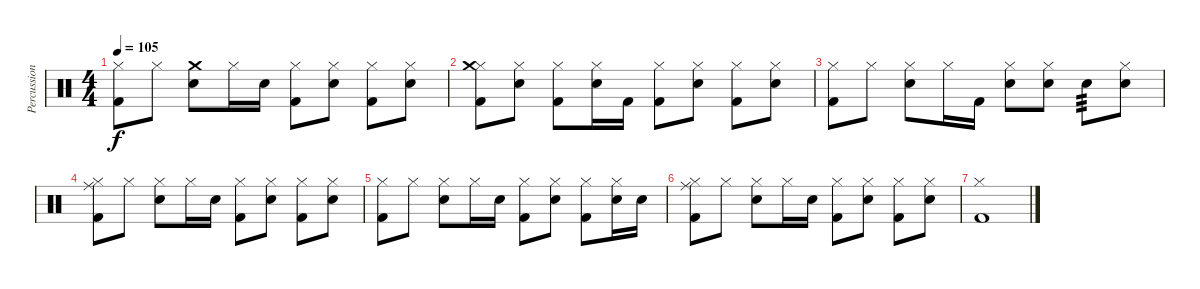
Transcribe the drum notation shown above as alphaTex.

\track ("Percussion" "Percussion") {instrument percussion}
\staff {score}
\articulation defaults
\ts (4 4)
\tempo 105
\clef neutral
\ks c
("Hi-Hat (closed)" "Kick (hit) 2").8{dy f} "Hi-Hat (closed)".8 ("Electric Snare (hit)" "Crash medium (hit)").8 "Hi-Hat (closed)".16 "Electric Snare (hit)".16 ("Hi-Hat (closed)" "Kick (hit) 2").8 ("Hi-Hat (closed)" "Electric Snare (hit)").8 ("Hi-Hat (closed)" "Kick (hit) 2").8 ("Hi-Hat (closed)" "Electric Snare (hit)").8 |
("Hi-Hat (closed)" "Crash medium (hit)" "Kick (hit) 2").8 ("Hi-Hat (closed)" "Electric Snare (hit)").8 ("Hi-Hat (closed)" "Kick (hit) 2").8 ("Electric Snare (hit)" "Hi-Hat (closed)").16 "Kick (hit) 2".16 ("Hi-Hat (closed)" "Kick (hit) 2").8 ("Hi-Hat (closed)" "Electric Snare (hit)").8 ("Hi-Hat (closed)" "Kick (hit) 2").8 ("Hi-Hat (closed)" "Electric Snare (hit)").8 |
("Hi-Hat (closed)" "Kick (hit) 2").8 "Hi-Hat (closed)".8 ("Hi-Hat (closed)" "Electric Snare (hit)").8 "Hi-Hat (closed)".16 "Kick (hit) 2".16 ("Hi-Hat (closed)" "Electric Snare (hit)").8 ("Hi-Hat (closed)" "Electric Snare (hit)").8 "Electric Snare (hit)".8{tp 3} ("Hi-Hat (closed)" "Electric Snare (hit)").8 |
("Hi-Hat (closed)" "Ride (middle)" "Kick (hit) 2").8 "Hi-Hat (closed)".8 ("Hi-Hat (closed)" "Electric Snare (hit)").8 "Hi-Hat (closed)".16 "Electric Snare (hit)".16 ("Hi-Hat (closed)" "Kick (hit) 2").8 ("Hi-Hat (closed)" "Electric Snare (hit)").8 ("Hi-Hat (closed)" "Kick (hit) 2").8 ("Hi-Hat (closed)" "Electric Snare (hit)").8 |
("Hi-Hat (closed)" "Kick (hit) 2").8 "Hi-Hat (closed)".8 ("Hi-Hat (closed)" "Electric Snare (hit)").8 "Hi-Hat (closed)".16 "Electric Snare (hit)".16 ("Hi-Hat (closed)" "Kick (hit) 2").8 ("Hi-Hat (closed)" "Electric Snare (hit)").8 ("Hi-Hat (closed)" "Kick (hit) 2").8 ("Hi-Hat (closed)" "Electric Snare (hit)").16 "Electric Snare (hit)".16 |
("Hi-Hat (closed)" "Ride (middle)" "Kick (hit) 2").8 "Hi-Hat (closed)".8 ("Hi-Hat (closed)" "Electric Snare (hit)").8 "Hi-Hat (closed)".16 "Electric Snare (hit)".16 ("Hi-Hat (closed)" "Kick (hit) 2").8 ("Hi-Hat (closed)" "Electric Snare (hit)").8 ("Hi-Hat (closed)" "Kick (hit) 2").8 ("Hi-Hat (closed)" "Electric Snare (hit)").8 |
("Hi-Hat (closed)" "Kick (hit) 2").1
